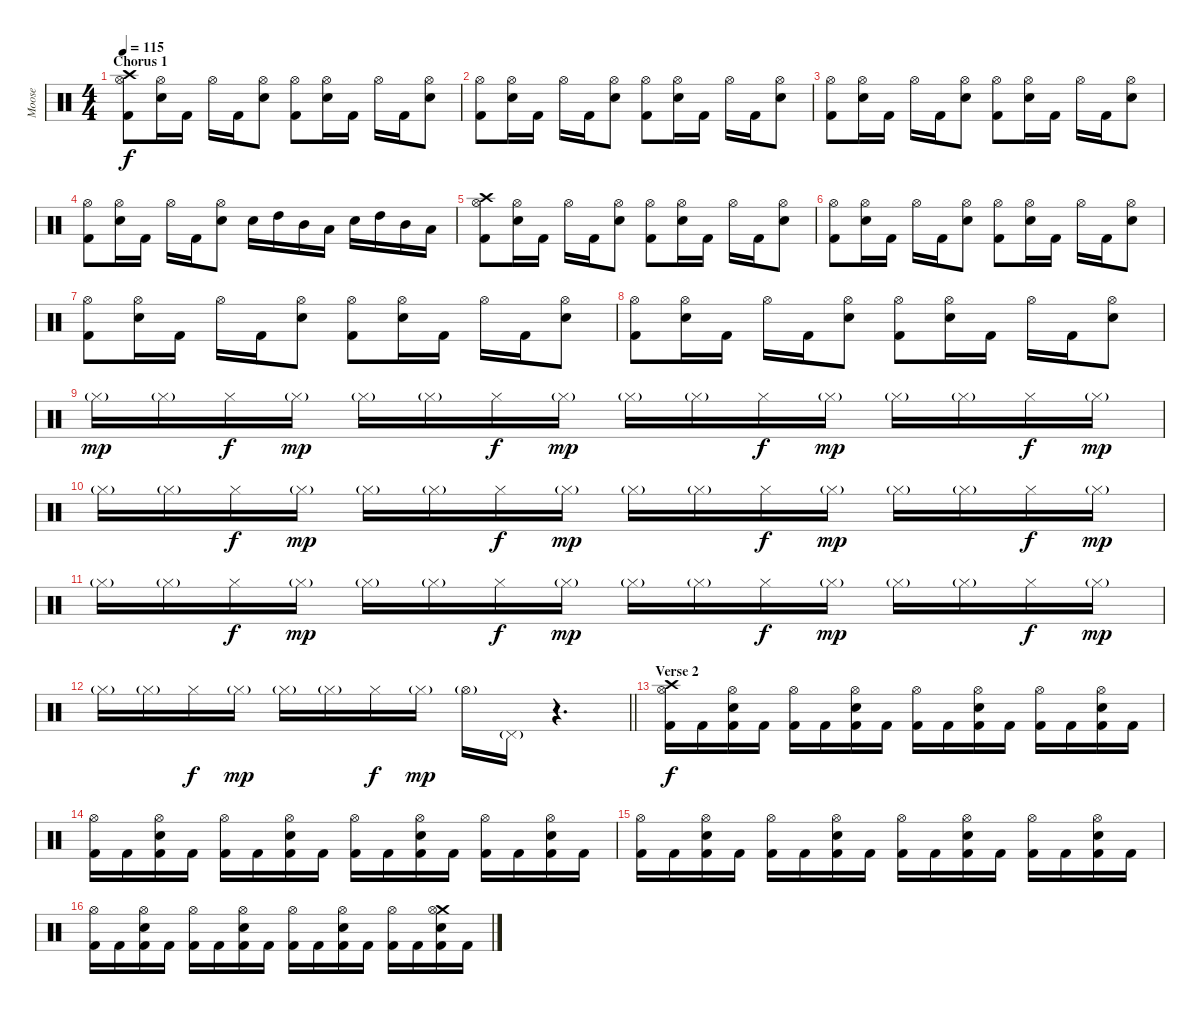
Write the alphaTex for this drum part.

\track ("Moose" "Moose") {instrument percussion}
\staff {score}
\articulation defaults
\ts (4 4)
\section ("" "Chorus 1")
\tempo 115
\clef neutral
\ks c
("Crash high (hit)" "Hi-Hat (open)" "Kick (hit) 2").8{dy f} ("Hi-Hat (open)" "Electric Snare (hit)").16 "Kick (hit) 2".16 "Hi-Hat (open)".16 "Kick (hit) 2".16 ("Hi-Hat (open)" "Electric Snare (hit)").8 ("Hi-Hat (open)" "Kick (hit) 2").8 ("Hi-Hat (open)" "Electric Snare (hit)").16 "Kick (hit) 2".16 "Hi-Hat (open)".16 "Kick (hit) 2".16 ("Hi-Hat (open)" "Electric Snare (hit)").8 |
("Hi-Hat (open)" "Kick (hit) 2").8 ("Hi-Hat (open)" "Electric Snare (hit)").16 "Kick (hit) 2".16 "Hi-Hat (open)".16 "Kick (hit) 2".16 ("Hi-Hat (open)" "Electric Snare (hit)").8 ("Hi-Hat (open)" "Kick (hit) 2").8 ("Hi-Hat (open)" "Electric Snare (hit)").16 "Kick (hit) 2".16 "Hi-Hat (open)".16 "Kick (hit) 2".16 ("Hi-Hat (open)" "Electric Snare (hit)").8 |
("Hi-Hat (open)" "Kick (hit) 2").8 ("Hi-Hat (open)" "Electric Snare (hit)").16 "Kick (hit) 2".16 "Hi-Hat (open)".16 "Kick (hit) 2".16 ("Hi-Hat (open)" "Electric Snare (hit)").8 ("Hi-Hat (open)" "Kick (hit) 2").8 ("Hi-Hat (open)" "Electric Snare (hit)").16 "Kick (hit) 2".16 "Hi-Hat (open)".16 "Kick (hit) 2".16 ("Hi-Hat (open)" "Electric Snare (hit)").8 |
("Hi-Hat (open)" "Kick (hit) 2").8 ("Hi-Hat (open)" "Electric Snare (hit)").16 "Kick (hit) 2".16 "Hi-Hat (open)".16 "Kick (hit) 2".16 ("Hi-Hat (open)" "Electric Snare (hit)").8 "Electric Snare (hit)".16 "High Tom (hit)".16 "Mid Tom (hit)".16 "Low Tom (hit)".16 "Electric Snare (hit)".16 "High Tom (hit)".16 "Mid Tom (hit)".16 "Low Tom (hit)".16 |
("Crash high (hit)" "Hi-Hat (open)" "Kick (hit) 2").8 ("Hi-Hat (open)" "Electric Snare (hit)").16 "Kick (hit) 2".16 "Hi-Hat (open)".16 "Kick (hit) 2".16 ("Hi-Hat (open)" "Electric Snare (hit)").8 ("Hi-Hat (open)" "Kick (hit) 2").8 ("Hi-Hat (open)" "Electric Snare (hit)").16 "Kick (hit) 2".16 "Hi-Hat (open)".16 "Kick (hit) 2".16 ("Hi-Hat (open)" "Electric Snare (hit)").8 |
("Hi-Hat (open)" "Kick (hit) 2").8 ("Hi-Hat (open)" "Electric Snare (hit)").16 "Kick (hit) 2".16 "Hi-Hat (open)".16 "Kick (hit) 2".16 ("Hi-Hat (open)" "Electric Snare (hit)").8 ("Hi-Hat (open)" "Kick (hit) 2").8 ("Hi-Hat (open)" "Electric Snare (hit)").16 "Kick (hit) 2".16 "Hi-Hat (open)".16 "Kick (hit) 2".16 ("Hi-Hat (open)" "Electric Snare (hit)").8 |
("Hi-Hat (open)" "Kick (hit) 2").8 ("Hi-Hat (open)" "Electric Snare (hit)").16 "Kick (hit) 2".16 "Hi-Hat (open)".16 "Kick (hit) 2".16 ("Hi-Hat (open)" "Electric Snare (hit)").8 ("Hi-Hat (open)" "Kick (hit) 2").8 ("Hi-Hat (open)" "Electric Snare (hit)").16 "Kick (hit) 2".16 "Hi-Hat (open)".16 "Kick (hit) 2".16 ("Hi-Hat (open)" "Electric Snare (hit)").8 |
("Hi-Hat (open)" "Kick (hit) 2").8 ("Hi-Hat (open)" "Electric Snare (hit)").16 "Kick (hit) 2".16 "Hi-Hat (open)".16 "Kick (hit) 2".16 ("Hi-Hat (open)" "Electric Snare (hit)").8 ("Hi-Hat (open)" "Kick (hit) 2").8 ("Hi-Hat (open)" "Electric Snare (hit)").16 "Kick (hit) 2".16 "Hi-Hat (open)".16 "Kick (hit) 2".16 ("Hi-Hat (open)" "Electric Snare (hit)").8 |
"Hi-Hat (closed)"{g}.16{dy mp} "Hi-Hat (closed)"{g}.16 "Hi-Hat (closed)".16{dy f} "Hi-Hat (closed)"{g}.16{dy mp} "Hi-Hat (closed)"{g}.16 "Hi-Hat (closed)"{g}.16 "Hi-Hat (closed)".16{dy f} "Hi-Hat (closed)"{g}.16{dy mp} "Hi-Hat (closed)"{g}.16 "Hi-Hat (closed)"{g}.16 "Hi-Hat (closed)".16{dy f} "Hi-Hat (closed)"{g}.16{dy mp} "Hi-Hat (closed)"{g}.16 "Hi-Hat (closed)"{g}.16 "Hi-Hat (closed)".16{dy f} "Hi-Hat (closed)"{g}.16{dy mp} |
"Hi-Hat (closed)"{g}.16 "Hi-Hat (closed)"{g}.16 "Hi-Hat (closed)".16{dy f} "Hi-Hat (closed)"{g}.16{dy mp} "Hi-Hat (closed)"{g}.16 "Hi-Hat (closed)"{g}.16 "Hi-Hat (closed)".16{dy f} "Hi-Hat (closed)"{g}.16{dy mp} "Hi-Hat (closed)"{g}.16 "Hi-Hat (closed)"{g}.16 "Hi-Hat (closed)".16{dy f} "Hi-Hat (closed)"{g}.16{dy mp} "Hi-Hat (closed)"{g}.16 "Hi-Hat (closed)"{g}.16 "Hi-Hat (closed)".16{dy f} "Hi-Hat (closed)"{g}.16{dy mp} |
"Hi-Hat (closed)"{g}.16 "Hi-Hat (closed)"{g}.16 "Hi-Hat (closed)".16{dy f} "Hi-Hat (closed)"{g}.16{dy mp} "Hi-Hat (closed)"{g}.16 "Hi-Hat (closed)"{g}.16 "Hi-Hat (closed)".16{dy f} "Hi-Hat (closed)"{g}.16{dy mp} "Hi-Hat (closed)"{g}.16 "Hi-Hat (closed)"{g}.16 "Hi-Hat (closed)".16{dy f} "Hi-Hat (closed)"{g}.16{dy mp} "Hi-Hat (closed)"{g}.16 "Hi-Hat (closed)"{g}.16 "Hi-Hat (closed)".16{dy f} "Hi-Hat (closed)"{g}.16{dy mp} |
\barLineRight lightlight "Hi-Hat (closed)"{g}.16 "Hi-Hat (closed)"{g}.16 "Hi-Hat (closed)".16{dy f} "Hi-Hat (closed)"{g}.16{dy mp} "Hi-Hat (closed)"{g}.16 "Hi-Hat (closed)"{g}.16 "Hi-Hat (closed)".16{dy f} "Hi-Hat (closed)"{g}.16{dy mp} "Hi-Hat (open)"{g}.16 "Pedal Hi-Hat (hit)"{g}.16
r.4{d} |
\section ("" "Verse 2")
("Crash high (hit)" "Hi-Hat (open)" "Kick (hit) 2").16{dy f} "Kick (hit) 2".16 ("Hi-Hat (open)" "Electric Snare (hit)" "Kick (hit) 2").16 "Kick (hit) 2".16 ("Hi-Hat (open)" "Kick (hit) 2").16 "Kick (hit) 2".16 ("Hi-Hat (open)" "Electric Snare (hit)" "Kick (hit) 2").16 "Kick (hit) 2".16 ("Hi-Hat (open)" "Kick (hit) 2").16 "Kick (hit) 2".16 ("Hi-Hat (open)" "Electric Snare (hit)" "Kick (hit) 2").16 "Kick (hit) 2".16 ("Hi-Hat (open)" "Kick (hit) 2").16 "Kick (hit) 2".16 ("Hi-Hat (open)" "Electric Snare (hit)" "Kick (hit) 2").16 "Kick (hit) 2".16 |
("Hi-Hat (open)" "Kick (hit) 2").16 "Kick (hit) 2".16 ("Hi-Hat (open)" "Electric Snare (hit)" "Kick (hit) 2").16 "Kick (hit) 2".16 ("Hi-Hat (open)" "Kick (hit) 2").16 "Kick (hit) 2".16 ("Hi-Hat (open)" "Electric Snare (hit)" "Kick (hit) 2").16 "Kick (hit) 2".16 ("Hi-Hat (open)" "Kick (hit) 2").16 "Kick (hit) 2".16 ("Hi-Hat (open)" "Electric Snare (hit)" "Kick (hit) 2").16 "Kick (hit) 2".16 ("Hi-Hat (open)" "Kick (hit) 2").16 "Kick (hit) 2".16 ("Hi-Hat (open)" "Electric Snare (hit)" "Kick (hit) 2").16 "Kick (hit) 2".16 |
("Hi-Hat (open)" "Kick (hit) 2").16 "Kick (hit) 2".16 ("Hi-Hat (open)" "Electric Snare (hit)" "Kick (hit) 2").16 "Kick (hit) 2".16 ("Hi-Hat (open)" "Kick (hit) 2").16 "Kick (hit) 2".16 ("Hi-Hat (open)" "Electric Snare (hit)" "Kick (hit) 2").16 "Kick (hit) 2".16 ("Hi-Hat (open)" "Kick (hit) 2").16 "Kick (hit) 2".16 ("Hi-Hat (open)" "Electric Snare (hit)" "Kick (hit) 2").16 "Kick (hit) 2".16 ("Hi-Hat (open)" "Kick (hit) 2").16 "Kick (hit) 2".16 ("Hi-Hat (open)" "Electric Snare (hit)" "Kick (hit) 2").16 "Kick (hit) 2".16 |
("Hi-Hat (open)" "Kick (hit) 2").16 "Kick (hit) 2".16 ("Hi-Hat (open)" "Electric Snare (hit)" "Kick (hit) 2").16 "Kick (hit) 2".16 ("Hi-Hat (open)" "Kick (hit) 2").16 "Kick (hit) 2".16 ("Hi-Hat (open)" "Electric Snare (hit)" "Kick (hit) 2").16 "Kick (hit) 2".16 ("Hi-Hat (open)" "Kick (hit) 2").16 "Kick (hit) 2".16 ("Hi-Hat (open)" "Electric Snare (hit)" "Kick (hit) 2").16 "Kick (hit) 2".16 ("Hi-Hat (open)" "Kick (hit) 2").16 "Kick (hit) 2".16 ("Crash medium (hit)" "Hi-Hat (open)" "Electric Snare (hit)" "Kick (hit) 2").16 "Kick (hit) 2".16
